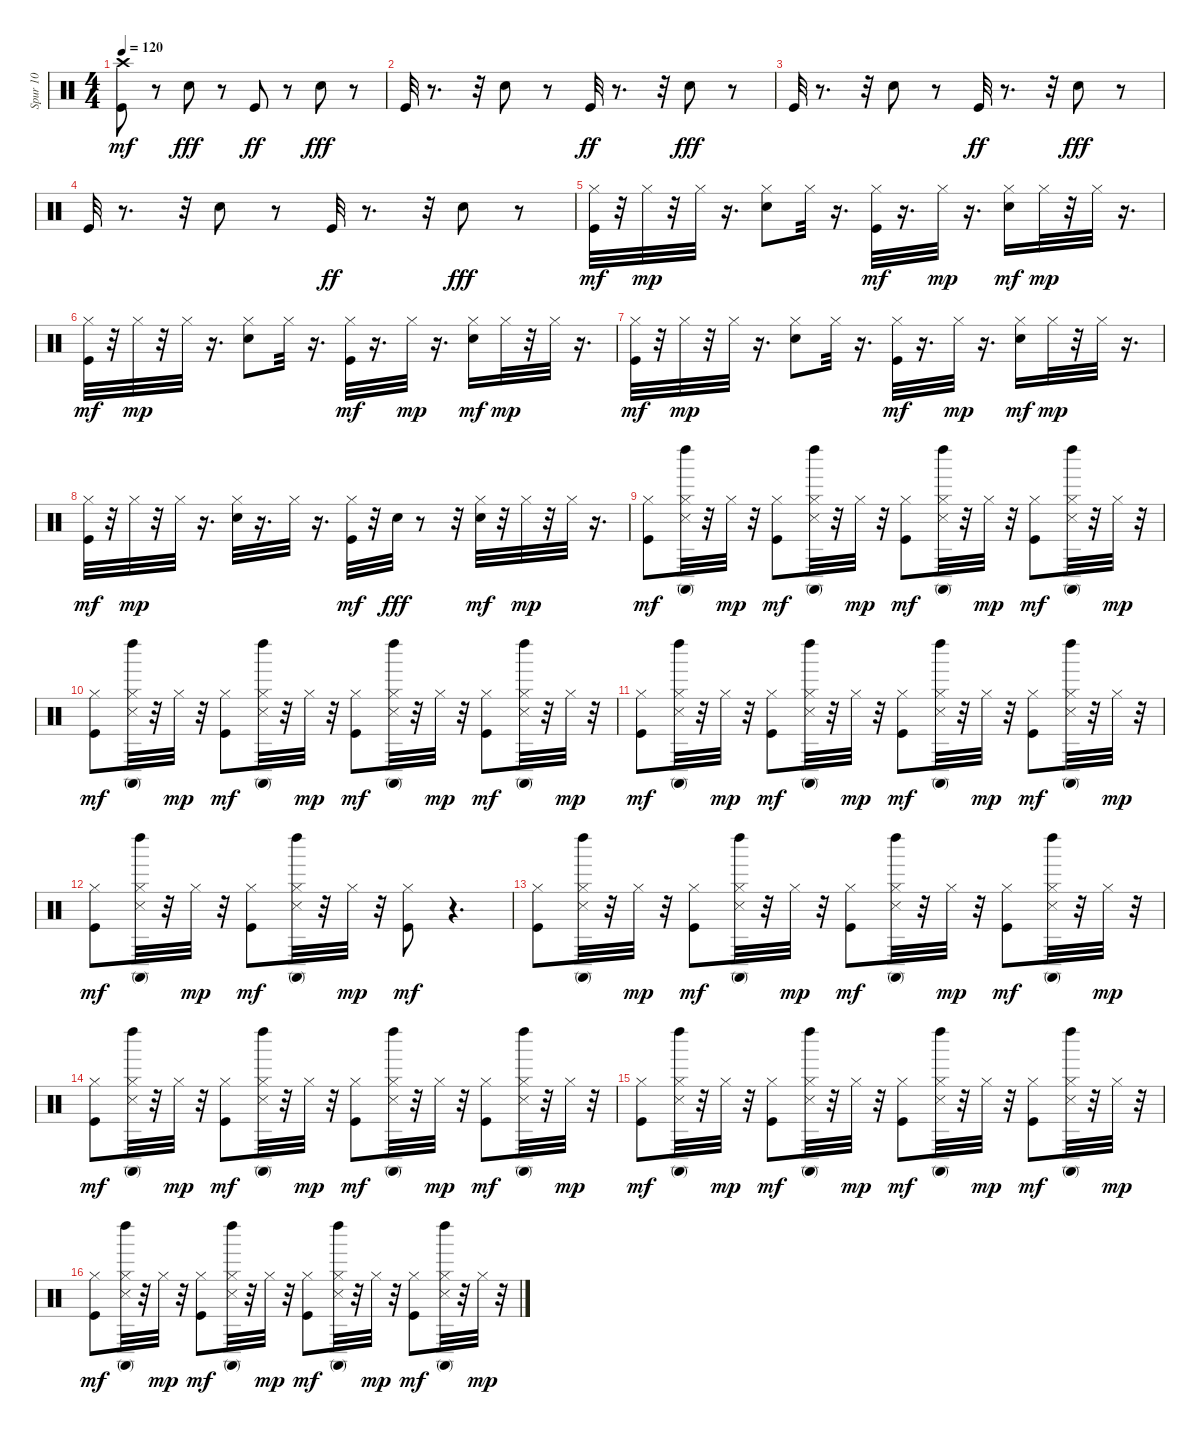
\track ("Spur 10" "Spur 10") {instrument percussion}
\staff {score}
\articulation defaults
\ts (4 4)
\tempo 120
\clef neutral
\ks c
("Kick (hit)" "Crash high (hit)").8{dy mf} r.8 "Snare (hit) 2".8{dy fff} r.8 "Kick (hit)".8{dy ff} r.8 "Snare (hit) 2".8{dy fff} r.8 |
"Kick (hit)".32 r.8{d} r.32 "Snare (hit) 2".8 r.8 "Kick (hit)".32{dy ff} r.8{d} r.32 "Snare (hit) 2".8{dy fff} r.8 |
"Kick (hit)".32 r.8{d} r.32 "Snare (hit) 2".8 r.8 "Kick (hit)".32{dy ff} r.8{d} r.32 "Snare (hit) 2".8{dy fff} r.8 |
"Kick (hit)".32 r.8{d} r.32 "Snare (hit) 2".8 r.8 "Kick (hit)".32{dy ff} r.8{d} r.32 "Snare (hit) 2".8{dy fff} r.8 |
("Kick (hit)" "Hi-Hat (closed)").32{dy mf} r.32 "Hi-Hat (closed)".32{dy mp} r.32 "Hi-Hat (closed)".32 r.16{d} ("Snare (hit) 2" "Hi-Hat (closed)").8 "Hi-Hat (closed)".32 r.16{d} ("Kick (hit)" "Hi-Hat (closed)").32{dy mf} r.16{d} "Hi-Hat (closed)".32{dy mp} r.16{d} ("Snare (hit) 2" "Hi-Hat (closed)").16{dy mf} "Hi-Hat (closed)".32{dy mp} r.32 "Hi-Hat (closed)".32 r.16{d} |
("Kick (hit)" "Hi-Hat (closed)").32{dy mf} r.32 "Hi-Hat (closed)".32{dy mp} r.32 "Hi-Hat (closed)".32 r.16{d} ("Snare (hit) 2" "Hi-Hat (closed)").8 "Hi-Hat (closed)".32 r.16{d} ("Kick (hit)" "Hi-Hat (closed)").32{dy mf} r.16{d} "Hi-Hat (closed)".32{dy mp} r.16{d} ("Snare (hit) 2" "Hi-Hat (closed)").16{dy mf} "Hi-Hat (closed)".32{dy mp} r.32 "Hi-Hat (closed)".32 r.16{d} |
("Kick (hit)" "Hi-Hat (closed)").32{dy mf} r.32 "Hi-Hat (closed)".32{dy mp} r.32 "Hi-Hat (closed)".32 r.16{d} ("Snare (hit) 2" "Hi-Hat (closed)").8 "Hi-Hat (closed)".32 r.16{d} ("Kick (hit)" "Hi-Hat (closed)").32{dy mf} r.16{d} "Hi-Hat (closed)".32{dy mp} r.16{d} ("Snare (hit) 2" "Hi-Hat (closed)").16{dy mf} "Hi-Hat (closed)".32{dy mp} r.32 "Hi-Hat (closed)".32 r.16{d} |
("Kick (hit)" "Hi-Hat (closed)").32{dy mf} r.32 "Hi-Hat (closed)".32{dy mp} r.32 "Hi-Hat (closed)".32 r.16{d} ("Snare (hit) 2" "Hi-Hat (closed)").32 r.16{d} "Hi-Hat (closed)".32 r.16{d} ("Kick (hit)" "Hi-Hat (closed)").32{dy mf} r.32 "Snare (hit) 2".32{dy fff} r.8 r.32 ("Snare (hit) 2" "Hi-Hat (closed)").32{dy mf} r.32 "Hi-Hat (closed)".32{dy mp} r.32 "Hi-Hat (closed)".32 r.16{d} |
("Kick (hit)" "Hi-Hat (closed)").8{dy mf} ("Hi-Hat (closed)" "Snare (side stick) 3" "Conga high (mute)" "Left Maraca (hit)").32 r.32 "Hi-Hat (closed)".32{dy mp} r.32 ("Kick (hit)" "Hi-Hat (closed)").8{dy mf} ("Hi-Hat (closed)" "Snare (side stick) 3" "Conga high (mute)" "Left Maraca (hit)").32 r.32 "Hi-Hat (closed)".32{dy mp} r.32 ("Kick (hit)" "Hi-Hat (closed)").8{dy mf} ("Hi-Hat (closed)" "Snare (side stick) 3" "Conga high (mute)" "Left Maraca (hit)").32 r.32 "Hi-Hat (closed)".32{dy mp} r.32 ("Kick (hit)" "Hi-Hat (closed)").8{dy mf} ("Hi-Hat (closed)" "Snare (side stick) 3" "Conga high (mute)" "Left Maraca (hit)").32 r.32 "Hi-Hat (closed)".32{dy mp} r.32 |
("Kick (hit)" "Hi-Hat (closed)").8{dy mf} ("Hi-Hat (closed)" "Snare (side stick) 3" "Conga high (mute)" "Left Maraca (hit)").32 r.32 "Hi-Hat (closed)".32{dy mp} r.32 ("Kick (hit)" "Hi-Hat (closed)").8{dy mf} ("Hi-Hat (closed)" "Snare (side stick) 3" "Conga high (mute)" "Left Maraca (hit)").32 r.32 "Hi-Hat (closed)".32{dy mp} r.32 ("Kick (hit)" "Hi-Hat (closed)").8{dy mf} ("Hi-Hat (closed)" "Snare (side stick) 3" "Conga high (mute)" "Left Maraca (hit)").32 r.32 "Hi-Hat (closed)".32{dy mp} r.32 ("Kick (hit)" "Hi-Hat (closed)").8{dy mf} ("Hi-Hat (closed)" "Snare (side stick) 3" "Conga high (mute)" "Left Maraca (hit)").32 r.32 "Hi-Hat (closed)".32{dy mp} r.32 |
("Kick (hit)" "Hi-Hat (closed)").8{dy mf} ("Hi-Hat (closed)" "Snare (side stick) 3" "Conga high (mute)" "Left Maraca (hit)").32 r.32 "Hi-Hat (closed)".32{dy mp} r.32 ("Kick (hit)" "Hi-Hat (closed)").8{dy mf} ("Hi-Hat (closed)" "Snare (side stick) 3" "Conga high (mute)" "Left Maraca (hit)").32 r.32 "Hi-Hat (closed)".32{dy mp} r.32 ("Kick (hit)" "Hi-Hat (closed)").8{dy mf} ("Hi-Hat (closed)" "Snare (side stick) 3" "Conga high (mute)" "Left Maraca (hit)").32 r.32 "Hi-Hat (closed)".32{dy mp} r.32 ("Kick (hit)" "Hi-Hat (closed)").8{dy mf} ("Hi-Hat (closed)" "Snare (side stick) 3" "Conga high (mute)" "Left Maraca (hit)").32 r.32 "Hi-Hat (closed)".32{dy mp} r.32 |
("Kick (hit)" "Hi-Hat (closed)").8{dy mf} ("Hi-Hat (closed)" "Snare (side stick) 3" "Conga high (mute)" "Left Maraca (hit)").32 r.32 "Hi-Hat (closed)".32{dy mp} r.32 ("Kick (hit)" "Hi-Hat (closed)").8{dy mf} ("Hi-Hat (closed)" "Snare (side stick) 3" "Conga high (mute)" "Left Maraca (hit)").32 r.32 "Hi-Hat (closed)".32{dy mp} r.32 ("Kick (hit)" "Hi-Hat (closed)").8{dy mf} r.4{d} |
("Kick (hit)" "Hi-Hat (closed)").8 ("Hi-Hat (closed)" "Snare (side stick) 3" "Conga high (mute)" "Left Maraca (hit)").32 r.32 "Hi-Hat (closed)".32{dy mp} r.32 ("Kick (hit)" "Hi-Hat (closed)").8{dy mf} ("Hi-Hat (closed)" "Snare (side stick) 3" "Conga high (mute)" "Left Maraca (hit)").32 r.32 "Hi-Hat (closed)".32{dy mp} r.32 ("Kick (hit)" "Hi-Hat (closed)").8{dy mf} ("Hi-Hat (closed)" "Snare (side stick) 3" "Conga high (mute)" "Left Maraca (hit)").32 r.32 "Hi-Hat (closed)".32{dy mp} r.32 ("Kick (hit)" "Hi-Hat (closed)").8{dy mf} ("Hi-Hat (closed)" "Snare (side stick) 3" "Conga high (mute)" "Left Maraca (hit)").32 r.32 "Hi-Hat (closed)".32{dy mp} r.32 |
("Kick (hit)" "Hi-Hat (closed)").8{dy mf} ("Hi-Hat (closed)" "Snare (side stick) 3" "Conga high (mute)" "Left Maraca (hit)").32 r.32 "Hi-Hat (closed)".32{dy mp} r.32 ("Kick (hit)" "Hi-Hat (closed)").8{dy mf} ("Hi-Hat (closed)" "Snare (side stick) 3" "Conga high (mute)" "Left Maraca (hit)").32 r.32 "Hi-Hat (closed)".32{dy mp} r.32 ("Kick (hit)" "Hi-Hat (closed)").8{dy mf} ("Hi-Hat (closed)" "Snare (side stick) 3" "Conga high (mute)" "Left Maraca (hit)").32 r.32 "Hi-Hat (closed)".32{dy mp} r.32 ("Kick (hit)" "Hi-Hat (closed)").8{dy mf} ("Hi-Hat (closed)" "Snare (side stick) 3" "Conga high (mute)" "Left Maraca (hit)").32 r.32 "Hi-Hat (closed)".32{dy mp} r.32 |
("Kick (hit)" "Hi-Hat (closed)").8{dy mf} ("Hi-Hat (closed)" "Snare (side stick) 3" "Conga high (mute)" "Left Maraca (hit)").32 r.32 "Hi-Hat (closed)".32{dy mp} r.32 ("Kick (hit)" "Hi-Hat (closed)").8{dy mf} ("Hi-Hat (closed)" "Snare (side stick) 3" "Conga high (mute)" "Left Maraca (hit)").32 r.32 "Hi-Hat (closed)".32{dy mp} r.32 ("Kick (hit)" "Hi-Hat (closed)").8{dy mf} ("Hi-Hat (closed)" "Snare (side stick) 3" "Conga high (mute)" "Left Maraca (hit)").32 r.32 "Hi-Hat (closed)".32{dy mp} r.32 ("Kick (hit)" "Hi-Hat (closed)").8{dy mf} ("Hi-Hat (closed)" "Snare (side stick) 3" "Conga high (mute)" "Left Maraca (hit)").32 r.32 "Hi-Hat (closed)".32{dy mp} r.32 |
("Kick (hit)" "Hi-Hat (closed)").8{dy mf} ("Hi-Hat (closed)" "Snare (side stick) 3" "Conga high (mute)" "Left Maraca (hit)").32 r.32 "Hi-Hat (closed)".32{dy mp} r.32 ("Kick (hit)" "Hi-Hat (closed)").8{dy mf} ("Hi-Hat (closed)" "Snare (side stick) 3" "Conga high (mute)" "Left Maraca (hit)").32 r.32 "Hi-Hat (closed)".32{dy mp} r.32 ("Kick (hit)" "Hi-Hat (closed)").8{dy mf} ("Hi-Hat (closed)" "Snare (side stick) 3" "Conga high (mute)" "Left Maraca (hit)").32 r.32 "Hi-Hat (closed)".32{dy mp} r.32 ("Kick (hit)" "Hi-Hat (closed)").8{dy mf} ("Hi-Hat (closed)" "Snare (side stick) 3" "Conga high (mute)" "Left Maraca (hit)").32 r.32 "Hi-Hat (closed)".32{dy mp} r.32
